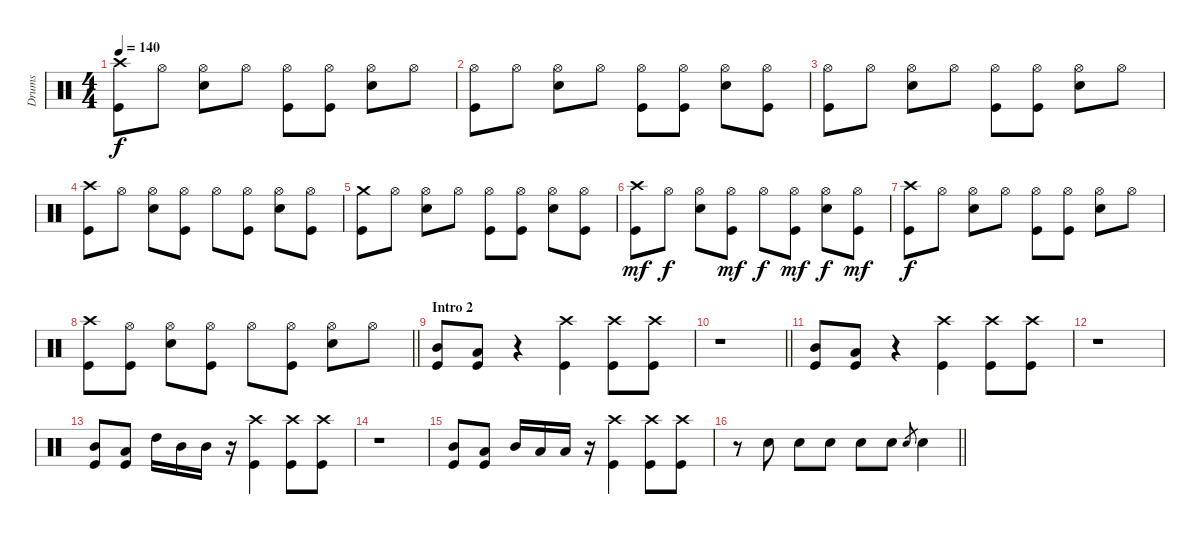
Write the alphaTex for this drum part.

\track ("Drums" "Drums") {instrument percussion}
\staff {score}
\articulation defaults
\ts (4 4)
\tempo 140
\clef neutral
\ks c
("Kick (hit)" "Crash high (hit)").8{dy f} "Hi-Hat (open)".8 ("Snare (hit) 2" "Hi-Hat (open)").8 "Hi-Hat (open)".8 ("Kick (hit)" "Hi-Hat (open)").8 ("Hi-Hat (open)" "Kick (hit)").8 ("Snare (hit) 2" "Hi-Hat (open)").8 "Hi-Hat (open)".8 |
("Kick (hit)" "Hi-Hat (open)").8 "Hi-Hat (open)".8 ("Snare (hit) 2" "Hi-Hat (open)").8 "Hi-Hat (open)".8 ("Kick (hit)" "Hi-Hat (open)").8 ("Hi-Hat (open)" "Kick (hit)").8 ("Snare (hit) 2" "Hi-Hat (open)").8 ("Hi-Hat (open)" "Kick (hit)").8 |
("Kick (hit)" "Hi-Hat (open)").8 "Hi-Hat (open)".8 ("Snare (hit) 2" "Hi-Hat (open)").8 "Hi-Hat (open)".8 ("Kick (hit)" "Hi-Hat (open)").8 ("Hi-Hat (open)" "Kick (hit)").8 ("Snare (hit) 2" "Hi-Hat (open)").8 "Hi-Hat (open)".8 |
("Kick (hit)" "Crash high (hit)").8 "Hi-Hat (open)".8 ("Snare (hit) 2" "Hi-Hat (open)").8 ("Hi-Hat (open)" "Kick (hit)").8 "Hi-Hat (open)".8 ("Hi-Hat (open)" "Kick (hit)").8 ("Snare (hit) 2" "Hi-Hat (open)").8 ("Hi-Hat (open)" "Kick (hit)").8 |
("Kick (hit)" "Crash medium (hit)").8 "Hi-Hat (open)".8 ("Snare (hit) 2" "Hi-Hat (open)").8 "Hi-Hat (open)".8 ("Kick (hit)" "Hi-Hat (open)").8 ("Hi-Hat (open)" "Kick (hit)").8 ("Snare (hit) 2" "Hi-Hat (open)").8 ("Hi-Hat (open)" "Kick (hit)").8 |
("Kick (hit)" "Crash high (hit)").8{dy mf} "Hi-Hat (open)".8{dy f} ("Snare (hit) 2" "Hi-Hat (open)").8 ("Hi-Hat (open)" "Kick (hit)").8{dy mf} "Hi-Hat (open)".8{dy f} ("Hi-Hat (open)" "Kick (hit)").8{dy mf} ("Snare (hit) 2" "Hi-Hat (open)").8{dy f} ("Hi-Hat (open)" "Kick (hit)").8{dy mf} |
("Kick (hit)" "Crash high (hit)").8{dy f} "Hi-Hat (open)".8 ("Snare (hit) 2" "Hi-Hat (open)").8 "Hi-Hat (open)".8 ("Kick (hit)" "Hi-Hat (open)").8 ("Hi-Hat (open)" "Kick (hit)").8 ("Snare (hit) 2" "Hi-Hat (open)").8 "Hi-Hat (open)".8 |
\barLineRight lightlight
("Kick (hit)" "Crash high (hit)").8 ("Hi-Hat (open)" "Kick (hit)").8 ("Snare (hit) 2" "Hi-Hat (open)").8 ("Hi-Hat (open)" "Kick (hit)").8 "Hi-Hat (open)".8 ("Hi-Hat (open)" "Kick (hit)").8 ("Snare (hit) 2" "Hi-Hat (open)").8 "Hi-Hat (open)".8 |
\section ("" "Intro 2")
("Kick (hit)" "Mid Tom (hit)").8 ("Kick (hit)" "Low Tom (hit)").8 r.4 ("Kick (hit)" "Crash high (hit)").4 ("Kick (hit)" "Crash high (hit)").8 ("Kick (hit)" "Crash high (hit)").8 |
\barLineRight lightlight
r.1 |
("Kick (hit)" "Mid Tom (hit)").8 ("Kick (hit)" "Low Tom (hit)").8 r.4 ("Kick (hit)" "Crash high (hit)").4 ("Kick (hit)" "Crash high (hit)").8 ("Kick (hit)" "Crash high (hit)").8 |
r.1 |
("Kick (hit)" "Mid Tom (hit)").8 ("Kick (hit)" "Low Tom (hit)").8 "High Tom (hit)".16 "Mid Tom (hit)".16 "Mid Tom (hit)".16 r.16 ("Kick (hit)" "Crash high (hit)").4 ("Kick (hit)" "Crash high (hit)").8 ("Kick (hit)" "Crash high (hit)").8 |
r.1 |
("Kick (hit)" "Mid Tom (hit)").8 ("Kick (hit)" "Low Tom (hit)").8 "Mid Tom (hit)".16 "Low Tom (hit)".16 "Low Tom (hit)".16 r.16 ("Kick (hit)" "Crash high (hit)").4 ("Kick (hit)" "Crash high (hit)").8 ("Kick (hit)" "Crash high (hit)").8 |
\barLineRight lightlight
r.8 "Snare (hit) 2".8 "Snare (hit) 2".8 "Snare (hit) 2".8 "Snare (hit) 2".8 "Snare (hit) 2".8 "Snare (hit) 2".8{gr} "Snare (hit) 2".4
